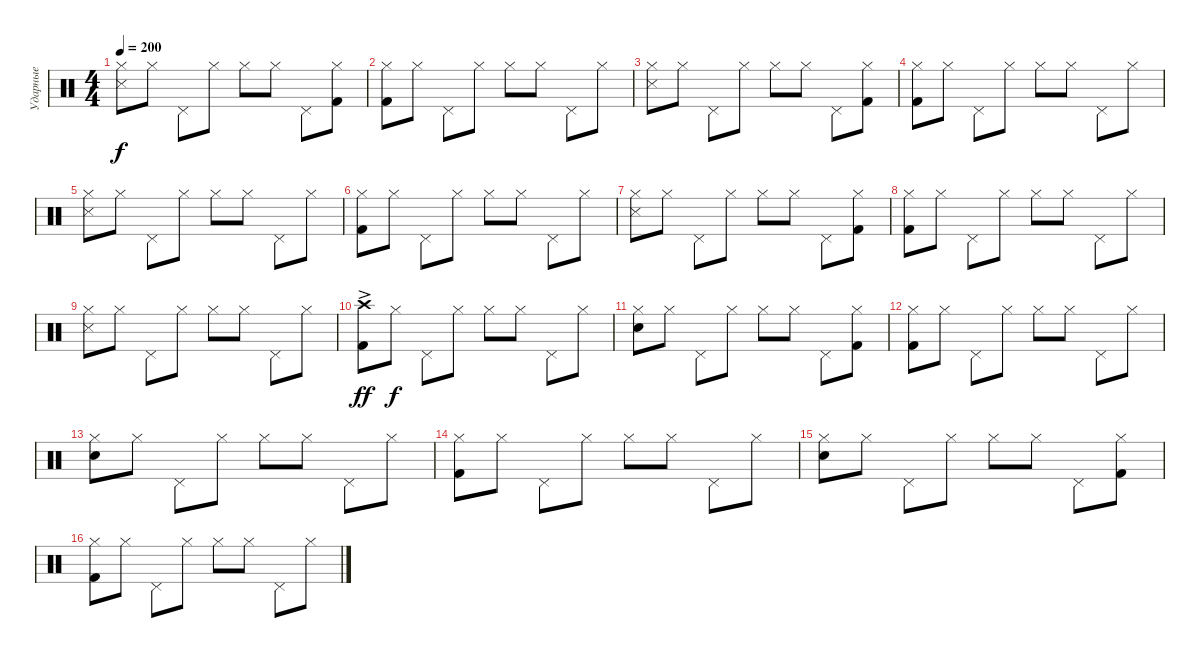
\track ("Ударные" "Ударные") {instrument percussion}
\staff
\articulation defaults
\ts (4 4)
\tempo 200
\clef neutral
\ks c
("Snare (side stick) 3" "Hi-Hat (closed)").8{dy f} "Hi-Hat (closed)".8 "Pedal Hi-Hat (hit)".8 "Hi-Hat (closed)".8 "Hi-Hat (closed)".8 "Hi-Hat (closed)".8 "Pedal Hi-Hat (hit)".8 ("Kick (hit) 2" "Hi-Hat (closed)").8 |
("Kick (hit) 2" "Hi-Hat (closed)").8 "Hi-Hat (closed)".8 "Pedal Hi-Hat (hit)".8 "Hi-Hat (closed)".8 "Hi-Hat (closed)".8 "Hi-Hat (closed)".8 "Pedal Hi-Hat (hit)".8 "Hi-Hat (closed)".8 |
("Snare (side stick) 3" "Hi-Hat (closed)").8 "Hi-Hat (closed)".8 "Pedal Hi-Hat (hit)".8 "Hi-Hat (closed)".8 "Hi-Hat (closed)".8 "Hi-Hat (closed)".8 "Pedal Hi-Hat (hit)".8 ("Kick (hit) 2" "Hi-Hat (closed)").8 |
("Kick (hit) 2" "Hi-Hat (closed)").8 "Hi-Hat (closed)".8 "Pedal Hi-Hat (hit)".8 "Hi-Hat (closed)".8 "Hi-Hat (closed)".8 "Hi-Hat (closed)".8 "Pedal Hi-Hat (hit)".8 "Hi-Hat (closed)".8 |
("Snare (side stick) 3" "Hi-Hat (closed)").8 "Hi-Hat (closed)".8 "Pedal Hi-Hat (hit)".8 "Hi-Hat (closed)".8 "Hi-Hat (closed)".8 "Hi-Hat (closed)".8 "Pedal Hi-Hat (hit)".8 "Hi-Hat (closed)".8 |
("Kick (hit) 2" "Hi-Hat (closed)").8 "Hi-Hat (closed)".8 "Pedal Hi-Hat (hit)".8 "Hi-Hat (closed)".8 "Hi-Hat (closed)".8 "Hi-Hat (closed)".8 "Pedal Hi-Hat (hit)".8 "Hi-Hat (closed)".8 |
("Snare (side stick) 3" "Hi-Hat (closed)").8 "Hi-Hat (closed)".8 "Pedal Hi-Hat (hit)".8 "Hi-Hat (closed)".8 "Hi-Hat (closed)".8 "Hi-Hat (closed)".8 "Pedal Hi-Hat (hit)".8 ("Kick (hit) 2" "Hi-Hat (closed)").8 |
("Kick (hit) 2" "Hi-Hat (closed)").8 "Hi-Hat (closed)".8 "Pedal Hi-Hat (hit)".8 "Hi-Hat (closed)".8 "Hi-Hat (closed)".8 "Hi-Hat (closed)".8 "Pedal Hi-Hat (hit)".8 "Hi-Hat (closed)".8 |
("Snare (side stick) 3" "Hi-Hat (closed)").8 "Hi-Hat (closed)".8 "Pedal Hi-Hat (hit)".8 "Hi-Hat (closed)".8 "Hi-Hat (closed)".8 "Hi-Hat (closed)".8 "Pedal Hi-Hat (hit)".8 "Hi-Hat (closed)".8 |
("Kick (hit) 2" "Crash high (hit)"{ac}).8{dy ff} "Hi-Hat (closed)".8{dy f} "Pedal Hi-Hat (hit)".8 "Hi-Hat (closed)".8 "Hi-Hat (closed)".8 "Hi-Hat (closed)".8 "Pedal Hi-Hat (hit)".8 "Hi-Hat (closed)".8 |
("Snare (hit) 2" "Hi-Hat (closed)").8 "Hi-Hat (closed)".8 "Pedal Hi-Hat (hit)".8 "Hi-Hat (closed)".8 "Hi-Hat (closed)".8 "Hi-Hat (closed)".8 "Pedal Hi-Hat (hit)".8 ("Kick (hit) 2" "Hi-Hat (closed)").8 |
("Kick (hit) 2" "Hi-Hat (closed)").8 "Hi-Hat (closed)".8 "Pedal Hi-Hat (hit)".8 "Hi-Hat (closed)".8 "Hi-Hat (closed)".8 "Hi-Hat (closed)".8 "Pedal Hi-Hat (hit)".8 "Hi-Hat (closed)".8 |
("Snare (hit) 2" "Hi-Hat (closed)").8 "Hi-Hat (closed)".8 "Pedal Hi-Hat (hit)".8 "Hi-Hat (closed)".8 "Hi-Hat (closed)".8 "Hi-Hat (closed)".8 "Pedal Hi-Hat (hit)".8 "Hi-Hat (closed)".8 |
("Kick (hit) 2" "Hi-Hat (closed)").8 "Hi-Hat (closed)".8 "Pedal Hi-Hat (hit)".8 "Hi-Hat (closed)".8 "Hi-Hat (closed)".8 "Hi-Hat (closed)".8 "Pedal Hi-Hat (hit)".8 "Hi-Hat (closed)".8 |
("Snare (hit) 2" "Hi-Hat (closed)").8 "Hi-Hat (closed)".8 "Pedal Hi-Hat (hit)".8 "Hi-Hat (closed)".8 "Hi-Hat (closed)".8 "Hi-Hat (closed)".8 "Pedal Hi-Hat (hit)".8 ("Kick (hit) 2" "Hi-Hat (closed)").8 |
("Kick (hit) 2" "Hi-Hat (closed)").8 "Hi-Hat (closed)".8 "Pedal Hi-Hat (hit)".8 "Hi-Hat (closed)".8 "Hi-Hat (closed)".8 "Hi-Hat (closed)".8 "Pedal Hi-Hat (hit)".8 "Hi-Hat (closed)".8
